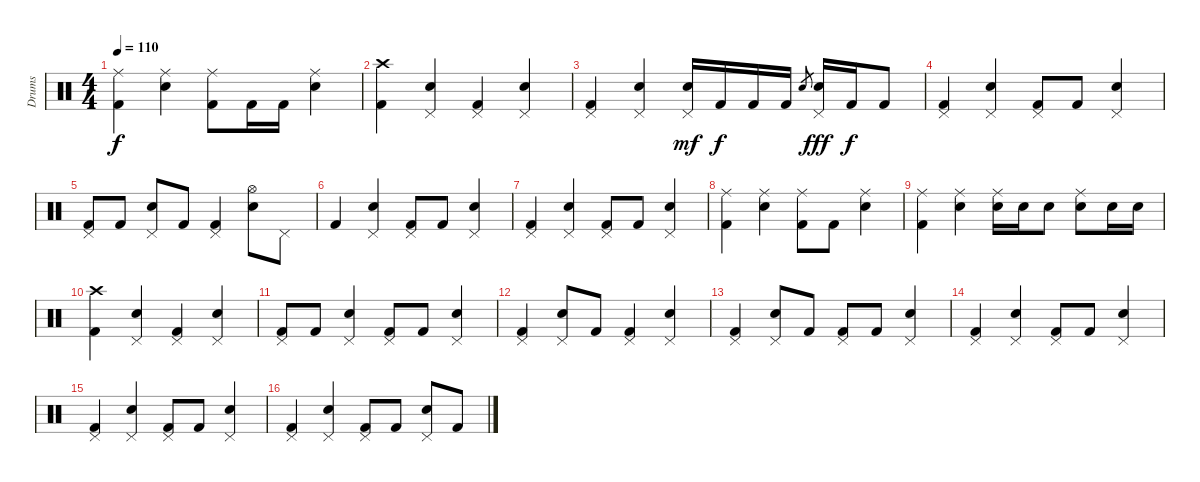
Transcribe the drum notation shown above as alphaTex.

\track ("Drums" "Drums") {instrument percussion}
\staff {score}
\articulation defaults
\ts (4 4)
\tempo 110
\clef neutral
\ks c
("Ride (middle)" "Kick (hit) 2").4{dy f} ("Ride (middle)" "Electric Snare (hit)").4 ("Ride (middle)" "Kick (hit) 2").8 "Kick (hit) 2".16 "Kick (hit) 2".16 ("Ride (middle)" "Electric Snare (hit)").4 |
("Crash high (hit)" "Kick (hit) 2").4 ("Pedal Hi-Hat (hit)" "Electric Snare (hit)").4 ("Pedal Hi-Hat (hit)" "Kick (hit) 2").4 ("Pedal Hi-Hat (hit)" "Electric Snare (hit)").4 |
("Pedal Hi-Hat (hit)" "Kick (hit) 2").4 ("Pedal Hi-Hat (hit)" "Electric Snare (hit)").4 ("Pedal Hi-Hat (hit)" "Electric Snare (hit)").16{dy mf} "Kick (hit) 2".16{dy f} "Kick (hit) 2".16 "Kick (hit) 2".16 "Electric Snare (hit)".8{gr} ("Pedal Hi-Hat (hit)" "Electric Snare (hit)").16{dy fff} "Kick (hit) 2".16{dy f} "Kick (hit) 2".8 |
("Pedal Hi-Hat (hit)" "Kick (hit) 2").4 ("Pedal Hi-Hat (hit)" "Electric Snare (hit)").4 ("Pedal Hi-Hat (hit)" "Kick (hit) 2").8 "Kick (hit) 2".8 ("Pedal Hi-Hat (hit)" "Electric Snare (hit)").4 |
("Pedal Hi-Hat (hit)" "Kick (hit) 2").8 "Kick (hit) 2".8 ("Pedal Hi-Hat (hit)" "Electric Snare (hit)").8 "Kick (hit) 2".8 ("Pedal Hi-Hat (hit)" "Kick (hit) 2").4 ("Hi-Hat (open)" "Electric Snare (hit)").8 "Pedal Hi-Hat (hit)".8 |
"Kick (hit) 2".4 ("Pedal Hi-Hat (hit)" "Electric Snare (hit)").4 ("Pedal Hi-Hat (hit)" "Kick (hit) 2").8 "Kick (hit) 2".8 ("Pedal Hi-Hat (hit)" "Electric Snare (hit)").4 |
("Pedal Hi-Hat (hit)" "Kick (hit) 2").4 ("Pedal Hi-Hat (hit)" "Electric Snare (hit)").4 ("Pedal Hi-Hat (hit)" "Kick (hit) 2").8 "Kick (hit) 2".8 ("Pedal Hi-Hat (hit)" "Electric Snare (hit)").4 |
("Ride (middle)" "Kick (hit) 2").4 ("Ride (middle)" "Electric Snare (hit)").4 ("Ride (middle)" "Kick (hit) 2").8 "Kick (hit) 2".8 ("Ride (middle)" "Electric Snare (hit)").4 |
("Ride (middle)" "Kick (hit) 2").4 ("Ride (middle)" "Electric Snare (hit)").4 ("Ride (middle)" "Electric Snare (hit)").16 "Electric Snare (hit)".16 "Electric Snare (hit)".8 ("Ride (middle)" "Electric Snare (hit)").8 "Electric Snare (hit)".16 "Electric Snare (hit)".16 |
("Crash high (hit)" "Kick (hit) 2").4 ("Pedal Hi-Hat (hit)" "Electric Snare (hit)").4 ("Pedal Hi-Hat (hit)" "Kick (hit) 2").4 ("Pedal Hi-Hat (hit)" "Electric Snare (hit)").4 |
("Pedal Hi-Hat (hit)" "Kick (hit) 2").8 "Kick (hit) 2".8 ("Pedal Hi-Hat (hit)" "Electric Snare (hit)").4 ("Pedal Hi-Hat (hit)" "Kick (hit) 2").8 "Kick (hit) 2".8 ("Pedal Hi-Hat (hit)" "Electric Snare (hit)").4 |
("Pedal Hi-Hat (hit)" "Kick (hit) 2").4 ("Pedal Hi-Hat (hit)" "Electric Snare (hit)").8 "Kick (hit) 2".8 ("Pedal Hi-Hat (hit)" "Kick (hit) 2").4 ("Pedal Hi-Hat (hit)" "Electric Snare (hit)").4 |
("Pedal Hi-Hat (hit)" "Kick (hit) 2").4 ("Pedal Hi-Hat (hit)" "Electric Snare (hit)").8 "Kick (hit) 2".8 ("Pedal Hi-Hat (hit)" "Kick (hit) 2").8 "Kick (hit) 2".8 ("Pedal Hi-Hat (hit)" "Electric Snare (hit)").4 |
("Pedal Hi-Hat (hit)" "Kick (hit) 2").4 ("Pedal Hi-Hat (hit)" "Electric Snare (hit)").4 ("Pedal Hi-Hat (hit)" "Kick (hit) 2").8 "Kick (hit) 2".8 ("Pedal Hi-Hat (hit)" "Electric Snare (hit)").4 |
("Pedal Hi-Hat (hit)" "Kick (hit) 2").4 ("Pedal Hi-Hat (hit)" "Electric Snare (hit)").4 ("Pedal Hi-Hat (hit)" "Kick (hit) 2").8 "Kick (hit) 2".8 ("Pedal Hi-Hat (hit)" "Electric Snare (hit)").4 |
("Pedal Hi-Hat (hit)" "Kick (hit) 2").4 ("Pedal Hi-Hat (hit)" "Electric Snare (hit)").4 ("Pedal Hi-Hat (hit)" "Kick (hit) 2").8 "Kick (hit) 2".8 ("Pedal Hi-Hat (hit)" "Electric Snare (hit)").8 "Kick (hit) 2".8
